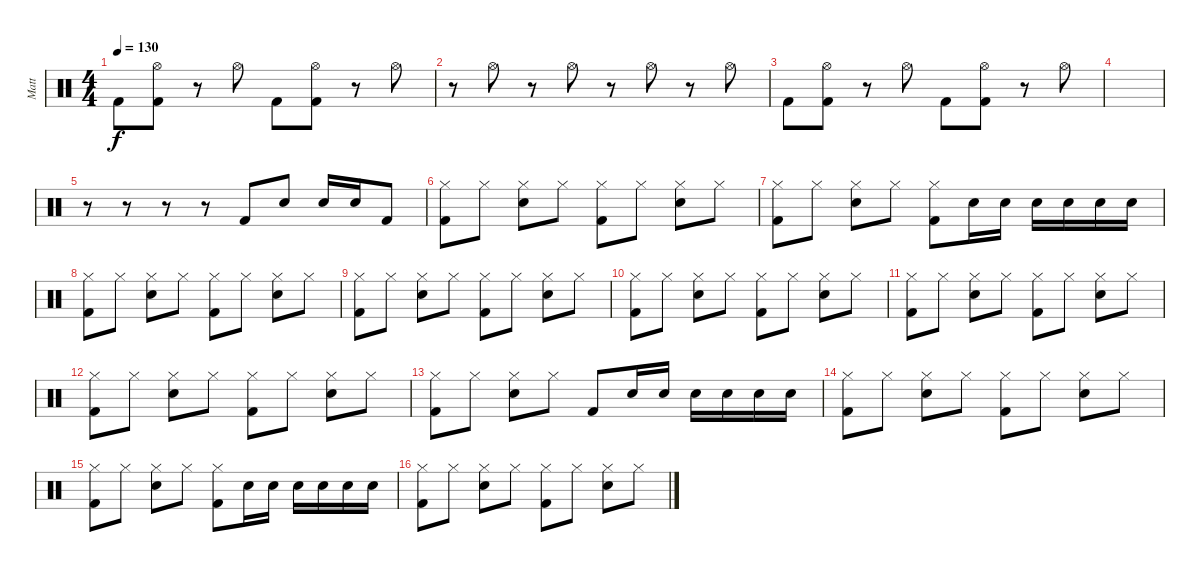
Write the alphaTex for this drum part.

\track ("Matt" "Matt") {instrument percussion}
\staff {score}
\articulation defaults
\ts (4 4)
\tempo 130
\clef neutral
\ks c "Kick (hit) 2".8{dy f}
("Hi-Hat (open)" "Kick (hit) 2").8 r.8 "Hi-Hat (open)".8 "Kick (hit) 2".8 ("Hi-Hat (open)" "Kick (hit) 2").8 r.8 "Hi-Hat (open)".8 |
r.8 "Hi-Hat (open)".8 r.8 "Hi-Hat (open)".8 r.8 "Hi-Hat (open)".8 r.8 "Hi-Hat (open)".8 |
"Kick (hit) 2".8 ("Hi-Hat (open)" "Kick (hit) 2").8 r.8 "Hi-Hat (open)".8 "Kick (hit) 2".8 ("Hi-Hat (open)" "Kick (hit) 2").8 r.8 "Hi-Hat (open)".8 |
|
r.8 r.8 r.8 r.8 "Kick (hit) 2".8 "Snare (hit) 2".8 "Snare (hit) 2".16 "Snare (hit) 2".16 "Kick (hit) 2".8 |
("Hi-Hat (closed)" "Kick (hit) 2").8 "Hi-Hat (closed)".8 ("Hi-Hat (closed)" "Snare (hit) 2").8 "Hi-Hat (closed)".8 ("Hi-Hat (closed)" "Kick (hit) 2").8 "Hi-Hat (closed)".8 ("Hi-Hat (closed)" "Snare (hit) 2").8 "Hi-Hat (closed)".8 |
("Hi-Hat (closed)" "Kick (hit) 2").8 "Hi-Hat (closed)".8 ("Hi-Hat (closed)" "Snare (hit) 2").8 "Hi-Hat (closed)".8 ("Hi-Hat (closed)" "Kick (hit) 2").8 "Snare (hit) 2".16 "Snare (hit) 2".16 "Snare (hit) 2".16 "Snare (hit) 2".16 "Snare (hit) 2".16 "Snare (hit) 2".16 |
("Hi-Hat (closed)" "Kick (hit) 2").8 "Hi-Hat (closed)".8 ("Hi-Hat (closed)" "Snare (hit) 2").8 "Hi-Hat (closed)".8 ("Hi-Hat (closed)" "Kick (hit) 2").8 "Hi-Hat (closed)".8 ("Hi-Hat (closed)" "Snare (hit) 2").8 "Hi-Hat (closed)".8 |
("Hi-Hat (closed)" "Kick (hit) 2").8 "Hi-Hat (closed)".8 ("Hi-Hat (closed)" "Snare (hit) 2").8 "Hi-Hat (closed)".8 ("Hi-Hat (closed)" "Kick (hit) 2").8 "Hi-Hat (closed)".8 ("Hi-Hat (closed)" "Snare (hit) 2").8 "Hi-Hat (closed)".8 |
("Hi-Hat (closed)" "Kick (hit) 2").8 "Hi-Hat (closed)".8 ("Hi-Hat (closed)" "Snare (hit) 2").8 "Hi-Hat (closed)".8 ("Hi-Hat (closed)" "Kick (hit) 2").8 "Hi-Hat (closed)".8 ("Hi-Hat (closed)" "Snare (hit) 2").8 "Hi-Hat (closed)".8 |
("Hi-Hat (closed)" "Kick (hit) 2").8 "Hi-Hat (closed)".8 ("Hi-Hat (closed)" "Snare (hit) 2").8 "Hi-Hat (closed)".8 ("Hi-Hat (closed)" "Kick (hit) 2").8 "Hi-Hat (closed)".8 ("Hi-Hat (closed)" "Snare (hit) 2").8 "Hi-Hat (closed)".8 |
("Hi-Hat (closed)" "Kick (hit) 2").8 "Hi-Hat (closed)".8 ("Hi-Hat (closed)" "Snare (hit) 2").8 "Hi-Hat (closed)".8 ("Hi-Hat (closed)" "Kick (hit) 2").8 "Hi-Hat (closed)".8 ("Hi-Hat (closed)" "Snare (hit) 2").8 "Hi-Hat (closed)".8 |
("Hi-Hat (closed)" "Kick (hit) 2").8 "Hi-Hat (closed)".8 ("Hi-Hat (closed)" "Snare (hit) 2").8 "Hi-Hat (closed)".8 "Kick (hit) 2".8 "Snare (hit) 2".16 "Snare (hit) 2".16 "Snare (hit) 2".16 "Snare (hit) 2".16 "Snare (hit) 2".16 "Snare (hit) 2".16 |
("Hi-Hat (closed)" "Kick (hit) 2").8 "Hi-Hat (closed)".8 ("Hi-Hat (closed)" "Snare (hit) 2").8 "Hi-Hat (closed)".8 ("Hi-Hat (closed)" "Kick (hit) 2").8 "Hi-Hat (closed)".8 ("Hi-Hat (closed)" "Snare (hit) 2").8 "Hi-Hat (closed)".8 |
("Hi-Hat (closed)" "Kick (hit) 2").8 "Hi-Hat (closed)".8 ("Hi-Hat (closed)" "Snare (hit) 2").8 "Hi-Hat (closed)".8 ("Hi-Hat (closed)" "Kick (hit) 2").8 "Snare (hit) 2".16 "Snare (hit) 2".16 "Snare (hit) 2".16 "Snare (hit) 2".16 "Snare (hit) 2".16 "Snare (hit) 2".16 |
("Hi-Hat (closed)" "Kick (hit) 2").8 "Hi-Hat (closed)".8 ("Hi-Hat (closed)" "Snare (hit) 2").8 "Hi-Hat (closed)".8 ("Hi-Hat (closed)" "Kick (hit) 2").8 "Hi-Hat (closed)".8 ("Hi-Hat (closed)" "Snare (hit) 2").8 "Hi-Hat (closed)".8
